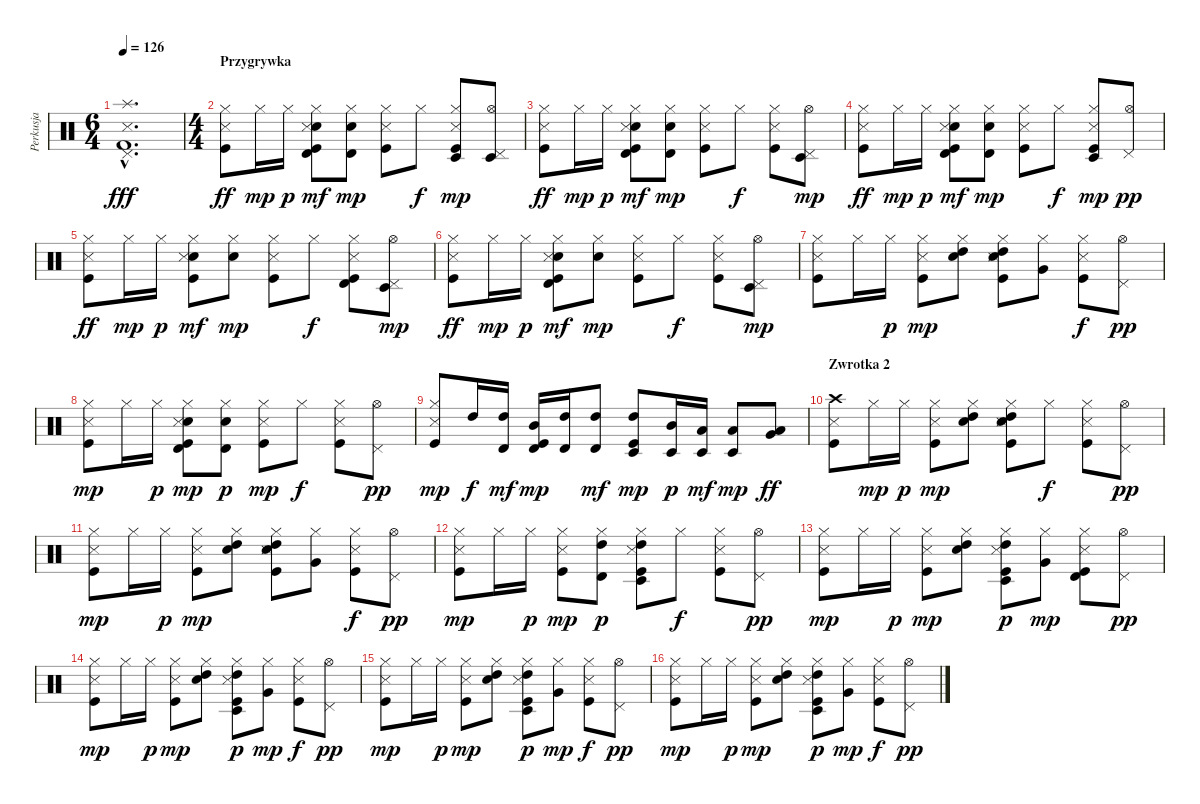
\track ("Perkusja" "Perkusja") {instrument percussion}
\staff {score}
\articulation defaults
\ts (6 4)
\tempo 126
\clef neutral
\ks c
("Pedal Hi-Hat (hit)"{hac} "Kick (hit) 2"{hac} "Splash (hit)"{hac} "Snare (side stick) 3"{hac}).1{d dy fff} |
\ts (4 4)
\section ("" "Przygrywka")
("Hi-Hat (closed)" "Kick (hit)" "Snare (side stick) 3").8{dy ff} "Hi-Hat (closed)".16{dy mp} "Hi-Hat (closed)".16{dy p} ("Hi-Hat (closed)" "Kick (hit)" "Timbale high (hit)" "Electric Snare (hit)" "Snare (side stick) 3").8{dy mf} ("Hi-Hat (closed)" "Timbale high (hit)" "Electric Snare (hit)").8{dy mp} ("Hi-Hat (closed)" "Kick (hit)" "Snare (side stick) 3").8 "Hi-Hat (closed)".8{dy f} ("Hi-Hat (closed)" "Kick (hit)" "Timbale low (hit)" "Snare (side stick) 3").8{dy mp} ("Hi-Hat (open)" "Pedal Hi-Hat (hit)" "Timbale low (hit)").8 |
("Hi-Hat (closed)" "Kick (hit)" "Snare (side stick) 3").8{dy ff} "Hi-Hat (closed)".16{dy mp} "Hi-Hat (closed)".16{dy p} ("Hi-Hat (closed)" "Kick (hit)" "Timbale high (hit)" "Electric Snare (hit)" "Snare (side stick) 3").8{dy mf} ("Hi-Hat (closed)" "Timbale high (hit)" "Electric Snare (hit)").8{dy mp} ("Hi-Hat (closed)" "Kick (hit)" "Snare (side stick) 3").8 "Hi-Hat (closed)".8{dy f} ("Hi-Hat (closed)" "Kick (hit)" "Snare (side stick) 3").8 ("Hi-Hat (open)" "Pedal Hi-Hat (hit)" "Timbale low (hit)").8{dy mp} |
("Hi-Hat (closed)" "Kick (hit)" "Snare (side stick) 3").8{dy ff} "Hi-Hat (closed)".16{dy mp} "Hi-Hat (closed)".16{dy p} ("Hi-Hat (closed)" "Kick (hit)" "Timbale high (hit)" "Electric Snare (hit)" "Snare (side stick) 3").8{dy mf} ("Hi-Hat (closed)" "Timbale high (hit)" "Electric Snare (hit)").8{dy mp} ("Hi-Hat (closed)" "Kick (hit)" "Snare (side stick) 3").8 "Hi-Hat (closed)".8{dy f} ("Hi-Hat (closed)" "Kick (hit)" "Timbale low (hit)" "Snare (side stick) 3").8{dy mp} ("Hi-Hat (open)" "Pedal Hi-Hat (hit)").8{dy pp} |
("Hi-Hat (closed)" "Kick (hit)" "Snare (side stick) 3").8{dy ff} "Hi-Hat (closed)".16{dy mp} "Hi-Hat (closed)".16{dy p} ("Hi-Hat (closed)" "Kick (hit)" "Electric Snare (hit)" "Snare (side stick) 3").8{dy mf} ("Hi-Hat (closed)" "Electric Snare (hit)").8{dy mp} ("Hi-Hat (closed)" "Kick (hit)" "Snare (side stick) 3").8 "Hi-Hat (closed)".8{dy f} ("Hi-Hat (closed)" "Kick (hit)" "Timbale high (hit)" "Snare (side stick) 3").8 ("Hi-Hat (open)" "Pedal Hi-Hat (hit)" "Timbale low (hit)").8{dy mp} |
("Hi-Hat (closed)" "Kick (hit)" "Snare (side stick) 3").8{dy ff} "Hi-Hat (closed)".16{dy mp} "Hi-Hat (closed)".16{dy p} ("Hi-Hat (closed)" "Kick (hit)" "Timbale high (hit)" "Electric Snare (hit)" "Snare (side stick) 3").8{dy mf} ("Hi-Hat (closed)" "Electric Snare (hit)").8{dy mp} ("Hi-Hat (closed)" "Kick (hit)" "Snare (side stick) 3").8 "Hi-Hat (closed)".8{dy f} ("Hi-Hat (closed)" "Kick (hit)" "Snare (side stick) 3").8 ("Hi-Hat (open)" "Pedal Hi-Hat (hit)" "Timbale low (hit)").8{dy mp} |
("Hi-Hat (closed)" "Kick (hit)" "Snare (side stick) 3").8 "Hi-Hat (closed)".16 "Hi-Hat (closed)".16{dy p} ("Hi-Hat (closed)" "Kick (hit)" "Snare (side stick) 3").8{dy mp} ("Hi-Hat (closed)" "High Tom (hit)" "Electric Snare (hit)").8 ("Hi-Hat (closed)" "Kick (hit)" "High Tom (hit)" "Electric Snare (hit)" "Snare (side stick) 3").8 ("Hi-Hat (closed)" "Very Low Tom (hit)").8 ("Hi-Hat (closed)" "Kick (hit)" "Snare (side stick) 3").8{dy f} ("Hi-Hat (open)" "Pedal Hi-Hat (hit)").8{dy pp} |
("Hi-Hat (closed)" "Kick (hit)" "Snare (side stick) 3").8{dy mp} "Hi-Hat (closed)".16 "Hi-Hat (closed)".16{dy p} ("Hi-Hat (closed)" "Kick (hit)" "Timbale high (hit)" "Electric Snare (hit)" "Snare (side stick) 3").8{dy mp} ("Hi-Hat (closed)" "Timbale high (hit)" "Electric Snare (hit)").8{dy p} ("Hi-Hat (closed)" "Kick (hit)" "Snare (side stick) 3").8{dy mp} "Hi-Hat (closed)".8{dy f} ("Hi-Hat (closed)" "Kick (hit)" "Snare (side stick) 3").8 ("Hi-Hat (open)" "Pedal Hi-Hat (hit)").8{dy pp} |
("Hi-Hat (closed)" "Kick (hit)" "Snare (side stick) 3").8{dy mp} "High Tom (hit)".16{dy f} ("High Tom (hit)" "Timbale high (hit)").16{dy mf} ("Kick (hit)" "Mid Tom (hit)" "Timbale high (hit)").16{dy mp} ("High Tom (hit)" "Timbale high (hit)").16 ("High Tom (hit)" "Timbale high (hit)").8{dy mf} ("Kick (hit)" "High Tom (hit)" "Timbale low (hit)").8{dy mp} ("Mid Tom (hit)" "Timbale low (hit)").16{dy p} ("Low Tom (hit)" "Timbale low (hit)").16{dy mf} ("Low Tom (hit)" "Timbale low (hit)").8{dy mp} ("Low Floor Tom (hit)" "Very Low Tom (hit)").8{dy ff} |
\section ("" "Zwrotka 2")
("Kick (hit)" "Crash high (hit)" "Snare (side stick) 3").8 "Hi-Hat (closed)".16{dy mp} "Hi-Hat (closed)".16{dy p} ("Hi-Hat (closed)" "Kick (hit)" "Snare (side stick) 3").8{dy mp} ("Hi-Hat (closed)" "High Tom (hit)" "Electric Snare (hit)").8 ("Hi-Hat (closed)" "Kick (hit)" "High Tom (hit)" "Electric Snare (hit)" "Snare (side stick) 3").8 "Hi-Hat (closed)".8{dy f} ("Hi-Hat (closed)" "Kick (hit)" "Snare (side stick) 3").8 ("Hi-Hat (open)" "Pedal Hi-Hat (hit)").8{dy pp} |
("Hi-Hat (closed)" "Kick (hit)" "Snare (side stick) 3").8{dy mp} "Hi-Hat (closed)".16 "Hi-Hat (closed)".16{dy p} ("Hi-Hat (closed)" "Kick (hit)" "Snare (side stick) 3").8{dy mp} ("Hi-Hat (closed)" "High Tom (hit)" "Electric Snare (hit)").8 ("Hi-Hat (closed)" "Kick (hit)" "High Tom (hit)" "Electric Snare (hit)" "Snare (side stick) 3").8 ("Hi-Hat (closed)" "Very Low Tom (hit)").8 ("Hi-Hat (closed)" "Kick (hit)" "Snare (side stick) 3").8{dy f} ("Hi-Hat (open)" "Pedal Hi-Hat (hit)").8{dy pp} |
("Hi-Hat (closed)" "Kick (hit)" "Snare (side stick) 3").8{dy mp} "Hi-Hat (closed)".16 "Hi-Hat (closed)".16{dy p} ("Hi-Hat (closed)" "Kick (hit)" "Snare (side stick) 3").8{dy mp} ("Hi-Hat (closed)" "High Tom (hit)" "Timbale high (hit)").8{dy p} ("Hi-Hat (closed)" "Kick (hit)" "High Tom (hit)" "Timbale low (hit)" "Snare (side stick) 3").8 "Hi-Hat (closed)".8{dy f} ("Hi-Hat (closed)" "Kick (hit)" "Snare (side stick) 3").8 ("Hi-Hat (open)" "Pedal Hi-Hat (hit)").8{dy pp} |
("Hi-Hat (closed)" "Kick (hit)" "Snare (side stick) 3").8{dy mp} "Hi-Hat (closed)".16 "Hi-Hat (closed)".16{dy p} ("Hi-Hat (closed)" "Kick (hit)" "Snare (side stick) 3").8{dy mp} ("Hi-Hat (closed)" "High Tom (hit)" "Electric Snare (hit)").8 ("Hi-Hat (closed)" "Kick (hit)" "High Tom (hit)" "Timbale low (hit)" "Snare (side stick) 3").8{dy p} ("Hi-Hat (closed)" "Very Low Tom (hit)").8{dy mp} ("Hi-Hat (closed)" "Kick (hit)" "Timbale high (hit)" "Snare (side stick) 3").8 ("Hi-Hat (open)" "Pedal Hi-Hat (hit)").8{dy pp} |
("Hi-Hat (closed)" "Kick (hit)" "Snare (side stick) 3").8{dy mp} "Hi-Hat (closed)".16 "Hi-Hat (closed)".16{dy p} ("Hi-Hat (closed)" "Kick (hit)" "Snare (side stick) 3").8{dy mp} ("Hi-Hat (closed)" "High Tom (hit)" "Electric Snare (hit)").8 ("Hi-Hat (closed)" "Kick (hit)" "High Tom (hit)" "Timbale low (hit)" "Snare (side stick) 3").8{dy p} ("Hi-Hat (closed)" "Very Low Tom (hit)").8{dy mp} ("Hi-Hat (closed)" "Kick (hit)" "Snare (side stick) 3").8{dy f} ("Hi-Hat (open)" "Pedal Hi-Hat (hit)").8{dy pp} |
("Hi-Hat (closed)" "Kick (hit)" "Snare (side stick) 3").8{dy mp} "Hi-Hat (closed)".16 "Hi-Hat (closed)".16{dy p} ("Hi-Hat (closed)" "Kick (hit)" "Snare (side stick) 3").8{dy mp} ("Hi-Hat (closed)" "High Tom (hit)" "Electric Snare (hit)").8 ("Hi-Hat (closed)" "Kick (hit)" "High Tom (hit)" "Timbale low (hit)" "Snare (side stick) 3").8{dy p} ("Hi-Hat (closed)" "Very Low Tom (hit)").8{dy mp} ("Hi-Hat (closed)" "Kick (hit)" "Snare (side stick) 3").8{dy f} ("Hi-Hat (open)" "Pedal Hi-Hat (hit)").8{dy pp} |
("Hi-Hat (closed)" "Kick (hit)" "Snare (side stick) 3").8{dy mp} "Hi-Hat (closed)".16 "Hi-Hat (closed)".16{dy p} ("Hi-Hat (closed)" "Kick (hit)" "Snare (side stick) 3").8{dy mp} ("Hi-Hat (closed)" "High Tom (hit)" "Electric Snare (hit)").8 ("Hi-Hat (closed)" "Kick (hit)" "High Tom (hit)" "Timbale low (hit)" "Snare (side stick) 3").8{dy p} ("Hi-Hat (closed)" "Very Low Tom (hit)").8{dy mp} ("Hi-Hat (closed)" "Kick (hit)" "Snare (side stick) 3").8{dy f} ("Hi-Hat (open)" "Pedal Hi-Hat (hit)").8{dy pp}
